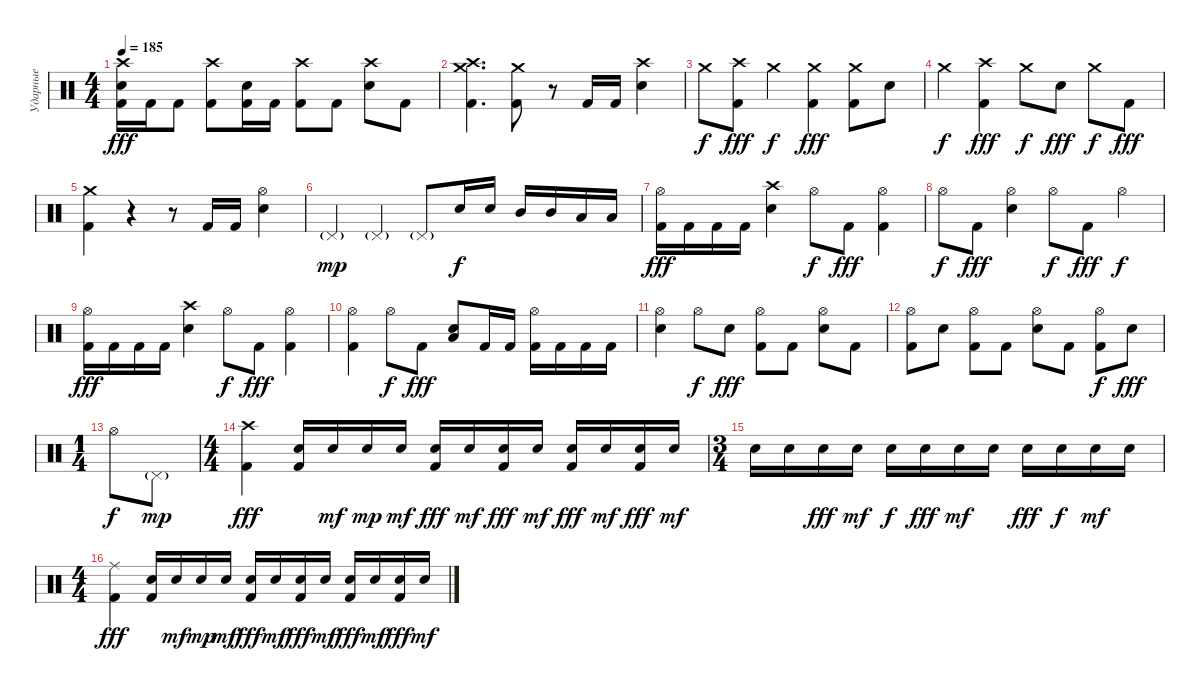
\track ("Ударные" "Ударные") {instrument percussion}
\staff {score}
\articulation defaults
\ts (4 4)
\tempo 185
\clef neutral
\ks c
("Crash high (hit)" "Electric Snare (hit)" "Kick (hit) 2").16{dy fff} "Kick (hit) 2".16 "Kick (hit) 2".8 ("Crash high (hit)" "Kick (hit) 2").8 ("Electric Snare (hit)" "Kick (hit) 2").16 "Kick (hit) 2".16 ("Crash high (hit)" "Kick (hit) 2").8 "Kick (hit) 2".8 ("Crash high (hit)" "Electric Snare (hit)").8 "Kick (hit) 2".8 |
("Crash high (hit)" "Crash medium (hit)" "Kick (hit) 2").4{d} ("Crash medium (hit)" "Kick (hit) 2").8 r.8 "Kick (hit) 2".16 "Kick (hit) 2".16 ("Crash high (hit)" "Electric Snare (hit)").4 |
"Crash medium (hit)".8{dy f} ("Crash high (hit)" "Kick (hit) 2").8{dy fff} "Crash medium (hit)".4{dy f} ("Crash medium (hit)" "Kick (hit) 2").4{dy fff} ("Crash medium (hit)" "Kick (hit) 2").8 "Electric Snare (hit)".8 |
"Crash medium (hit)".4{dy f} ("Crash high (hit)" "Kick (hit) 2").4{dy fff} "Crash medium (hit)".8{dy f} "Electric Snare (hit)".8{dy fff} "Crash medium (hit)".8{dy f} "Kick (hit) 2".8{dy fff} |
("Crash medium (hit)" "Kick (hit) 2").4 r.4{volume 0} r.8 "Kick (hit) 2".16{volume 13} "Kick (hit) 2".16 ("Hi-Hat (open)" "Electric Snare (hit)").4 |
"Pedal Hi-Hat (hit)"{g}.4{dy mp} "Pedal Hi-Hat (hit)"{g}.4 "Pedal Hi-Hat (hit)"{g}.8 "Electric Snare (hit)".16{dy f} "Electric Snare (hit)".16 "Mid Tom (hit)".16 "Mid Tom (hit)".16 "Low Tom (hit)".16 "Low Tom (hit)".16 |
("Hi-Hat (open)" "Kick (hit) 2").16{dy fff} "Kick (hit) 2".16 "Kick (hit) 2".16 "Kick (hit) 2".16 ("Crash high (hit)" "Electric Snare (hit)").4 "Hi-Hat (open)".8{dy f} "Kick (hit) 2".8{dy fff} ("Hi-Hat (open)" "Kick (hit) 2").4 |
"Hi-Hat (open)".8{dy f} "Kick (hit) 2".8{dy fff} ("Hi-Hat (open)" "Electric Snare (hit)").4 "Hi-Hat (open)".8{dy f} "Kick (hit) 2".8{dy fff} "Hi-Hat (open)".4{dy f} |
("Hi-Hat (open)" "Kick (hit) 2").16{dy fff} "Kick (hit) 2".16 "Kick (hit) 2".16 "Kick (hit) 2".16 ("Crash high (hit)" "Electric Snare (hit)").4 "Hi-Hat (open)".8{dy f} "Kick (hit) 2".8{dy fff} ("Hi-Hat (open)" "Kick (hit) 2").4 |
("Hi-Hat (open)" "Kick (hit) 2").4 "Hi-Hat (open)".8{dy f} "Kick (hit) 2".8{dy fff} ("Low Floor Tom (hit)" "Electric Snare (hit)").8 "Kick (hit) 2".16 "Kick (hit) 2".16 ("Hi-Hat (open)" "Kick (hit) 2").16 "Kick (hit) 2".16 "Kick (hit) 2".16 "Kick (hit) 2".16 |
("Hi-Hat (open)" "Electric Snare (hit)").4 "Hi-Hat (open)".8{dy f} "Electric Snare (hit)".8{dy fff} ("Hi-Hat (open)" "Kick (hit) 2").8 "Kick (hit) 2".8 ("Hi-Hat (open)" "Electric Snare (hit)").8 "Kick (hit) 2".8 |
("Hi-Hat (open)" "Kick (hit) 2").8 "Electric Snare (hit)".8 ("Hi-Hat (open)" "Kick (hit) 2").8 "Kick (hit) 2".8 ("Hi-Hat (open)" "Electric Snare (hit)").8 "Kick (hit) 2".8 ("Hi-Hat (open)" "Kick (hit) 2").8{dy f} "Electric Snare (hit)".8{dy fff} |
\ts (1 4)
"Hi-Hat (open)".8{dy f} "Pedal Hi-Hat (hit)"{g}.8{dy mp} |
\ts (4 4)
("Crash high (hit)" "Kick (hit) 2").4{dy fff} ("Electric Snare (hit)" "Kick (hit) 2").16 "Electric Snare (hit)".16{dy mf} "Electric Snare (hit)".16{dy mp} "Electric Snare (hit)".16{dy mf} ("Electric Snare (hit)" "Kick (hit) 2").16{dy fff} "Electric Snare (hit)".16{dy mf} ("Electric Snare (hit)" "Kick (hit) 2").16{dy fff} "Electric Snare (hit)".16{dy mf} ("Electric Snare (hit)" "Kick (hit) 2").16{dy fff} "Electric Snare (hit)".16{dy mf} ("Electric Snare (hit)" "Kick (hit) 2").16{dy fff} "Electric Snare (hit)".16{dy mf} |
\ts (3 4)
"Electric Snare (hit)".16 "Electric Snare (hit)".16 "Electric Snare (hit)".16{dy fff} "Electric Snare (hit)".16{dy mf} "Electric Snare (hit)".16{dy f} "Electric Snare (hit)".16{dy fff} "Electric Snare (hit)".16{dy mf} "Electric Snare (hit)".16 "Electric Snare (hit)".16{dy fff} "Electric Snare (hit)".16{dy f} "Electric Snare (hit)".16{dy mf} "Electric Snare (hit)".16 |
\ts (4 4)
("Ride (middle)" "Kick (hit) 2").4{dy fff} ("Electric Snare (hit)" "Kick (hit) 2").16 "Electric Snare (hit)".16{dy mf} "Electric Snare (hit)".16{dy mp} "Electric Snare (hit)".16{dy mf} ("Electric Snare (hit)" "Kick (hit) 2").16{dy fff} "Electric Snare (hit)".16{dy mf} ("Electric Snare (hit)" "Kick (hit) 2").16{dy fff} "Electric Snare (hit)".16{dy mf} ("Electric Snare (hit)" "Kick (hit) 2").16{dy fff} "Electric Snare (hit)".16{dy mf} ("Electric Snare (hit)" "Kick (hit) 2").16{dy fff} "Electric Snare (hit)".16{dy mf}
